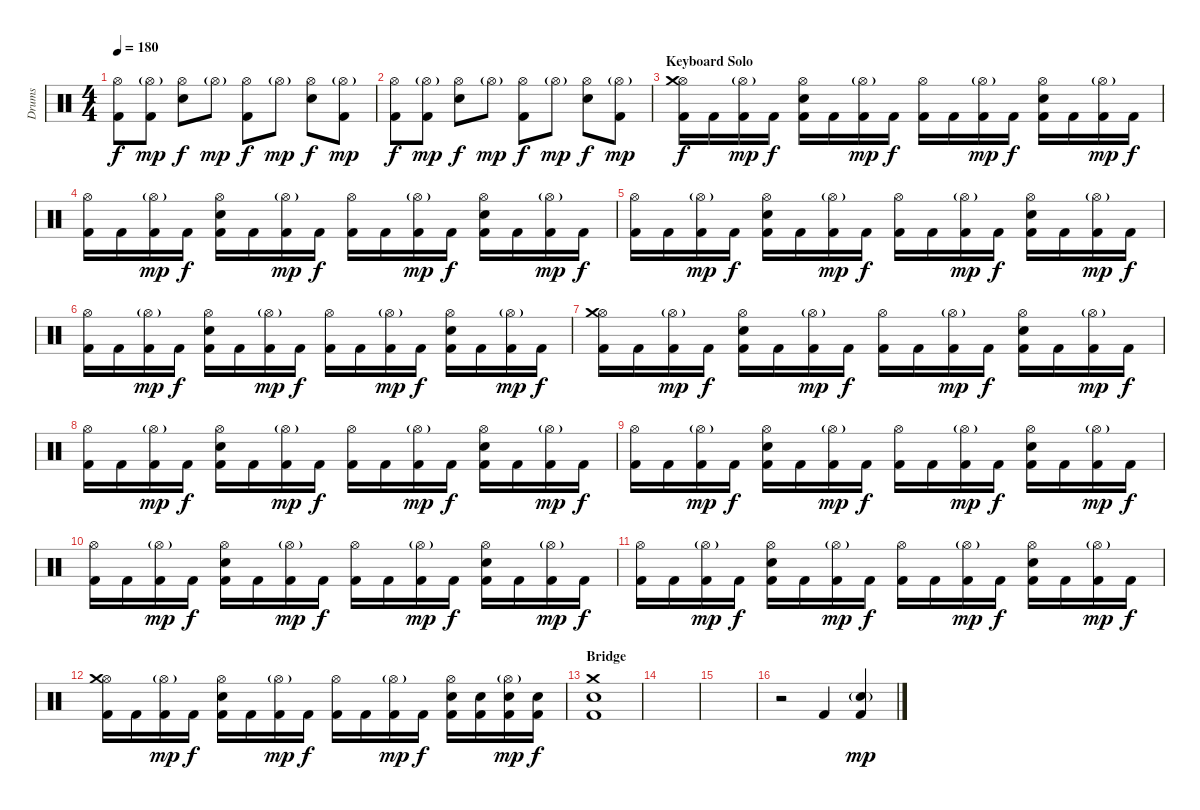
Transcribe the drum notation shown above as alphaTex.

\track ("Drums" "Drums") {instrument percussion}
\staff {score}
\articulation defaults
\ts (4 4)
\tempo 180
\clef neutral
\ks c
("Hi-Hat (open)" "Kick (hit) 2").8{dy f} ("Hi-Hat (open)"{g} "Kick (hit) 2").8{dy mp} ("Hi-Hat (open)" "Electric Snare (hit)").8{dy f} "Hi-Hat (open)"{g}.8{dy mp} ("Hi-Hat (open)" "Kick (hit) 2").8{dy f} "Hi-Hat (open)"{g}.8{dy mp} ("Hi-Hat (open)" "Electric Snare (hit)").8{dy f} ("Hi-Hat (open)"{g} "Kick (hit) 2").8{dy mp} |
("Hi-Hat (open)" "Kick (hit) 2").8{dy f} ("Hi-Hat (open)"{g} "Kick (hit) 2").8{dy mp} ("Hi-Hat (open)" "Electric Snare (hit)").8{dy f} "Hi-Hat (open)"{g}.8{dy mp} ("Hi-Hat (open)" "Kick (hit) 2").8{dy f} "Hi-Hat (open)"{g}.8{dy mp} ("Hi-Hat (open)" "Electric Snare (hit)").8{dy f} ("Hi-Hat (open)"{g} "Kick (hit) 2").8{dy mp} |
\section ("" "Keyboard Solo")
("Hi-Hat (open)" "Crash medium (hit)" "Kick (hit) 2").16{dy f} "Kick (hit) 2".16 ("Hi-Hat (open)"{g} "Kick (hit) 2").16{dy mp} "Kick (hit) 2".16{dy f} ("Hi-Hat (open)" "Electric Snare (hit)" "Kick (hit) 2").16 "Kick (hit) 2".16 ("Hi-Hat (open)"{g} "Kick (hit) 2").16{dy mp} "Kick (hit) 2".16{dy f} ("Hi-Hat (open)" "Kick (hit) 2").16 "Kick (hit) 2".16 ("Hi-Hat (open)"{g} "Kick (hit) 2").16{dy mp} "Kick (hit) 2".16{dy f} ("Hi-Hat (open)" "Electric Snare (hit)" "Kick (hit) 2").16 "Kick (hit) 2".16 ("Hi-Hat (open)"{g} "Kick (hit) 2").16{dy mp} "Kick (hit) 2".16{dy f} |
("Hi-Hat (open)" "Kick (hit) 2").16 "Kick (hit) 2".16 ("Hi-Hat (open)"{g} "Kick (hit) 2").16{dy mp} "Kick (hit) 2".16{dy f} ("Hi-Hat (open)" "Electric Snare (hit)" "Kick (hit) 2").16 "Kick (hit) 2".16 ("Hi-Hat (open)"{g} "Kick (hit) 2").16{dy mp} "Kick (hit) 2".16{dy f} ("Hi-Hat (open)" "Kick (hit) 2").16 "Kick (hit) 2".16 ("Hi-Hat (open)"{g} "Kick (hit) 2").16{dy mp} "Kick (hit) 2".16{dy f} ("Hi-Hat (open)" "Electric Snare (hit)" "Kick (hit) 2").16 "Kick (hit) 2".16 ("Hi-Hat (open)"{g} "Kick (hit) 2").16{dy mp} "Kick (hit) 2".16{dy f} |
("Hi-Hat (open)" "Kick (hit) 2").16 "Kick (hit) 2".16 ("Hi-Hat (open)"{g} "Kick (hit) 2").16{dy mp} "Kick (hit) 2".16{dy f} ("Hi-Hat (open)" "Electric Snare (hit)" "Kick (hit) 2").16 "Kick (hit) 2".16 ("Hi-Hat (open)"{g} "Kick (hit) 2").16{dy mp} "Kick (hit) 2".16{dy f} ("Hi-Hat (open)" "Kick (hit) 2").16 "Kick (hit) 2".16 ("Hi-Hat (open)"{g} "Kick (hit) 2").16{dy mp} "Kick (hit) 2".16{dy f} ("Hi-Hat (open)" "Electric Snare (hit)" "Kick (hit) 2").16 "Kick (hit) 2".16 ("Hi-Hat (open)"{g} "Kick (hit) 2").16{dy mp} "Kick (hit) 2".16{dy f} |
("Hi-Hat (open)" "Kick (hit) 2").16 "Kick (hit) 2".16 ("Hi-Hat (open)"{g} "Kick (hit) 2").16{dy mp} "Kick (hit) 2".16{dy f} ("Hi-Hat (open)" "Electric Snare (hit)" "Kick (hit) 2").16 "Kick (hit) 2".16 ("Hi-Hat (open)"{g} "Kick (hit) 2").16{dy mp} "Kick (hit) 2".16{dy f} ("Hi-Hat (open)" "Kick (hit) 2").16 "Kick (hit) 2".16 ("Hi-Hat (open)"{g} "Kick (hit) 2").16{dy mp} "Kick (hit) 2".16{dy f} ("Hi-Hat (open)" "Electric Snare (hit)" "Kick (hit) 2").16 "Kick (hit) 2".16 ("Hi-Hat (open)"{g} "Kick (hit) 2").16{dy mp} "Kick (hit) 2".16{dy f} |
("Hi-Hat (open)" "Crash medium (hit)" "Kick (hit) 2").16 "Kick (hit) 2".16 ("Hi-Hat (open)"{g} "Kick (hit) 2").16{dy mp} "Kick (hit) 2".16{dy f} ("Hi-Hat (open)" "Electric Snare (hit)" "Kick (hit) 2").16 "Kick (hit) 2".16 ("Hi-Hat (open)"{g} "Kick (hit) 2").16{dy mp} "Kick (hit) 2".16{dy f} ("Hi-Hat (open)" "Kick (hit) 2").16 "Kick (hit) 2".16 ("Hi-Hat (open)"{g} "Kick (hit) 2").16{dy mp} "Kick (hit) 2".16{dy f} ("Hi-Hat (open)" "Electric Snare (hit)" "Kick (hit) 2").16 "Kick (hit) 2".16 ("Hi-Hat (open)"{g} "Kick (hit) 2").16{dy mp} "Kick (hit) 2".16{dy f} |
("Hi-Hat (open)" "Kick (hit) 2").16 "Kick (hit) 2".16 ("Hi-Hat (open)"{g} "Kick (hit) 2").16{dy mp} "Kick (hit) 2".16{dy f} ("Hi-Hat (open)" "Electric Snare (hit)" "Kick (hit) 2").16 "Kick (hit) 2".16 ("Hi-Hat (open)"{g} "Kick (hit) 2").16{dy mp} "Kick (hit) 2".16{dy f} ("Hi-Hat (open)" "Kick (hit) 2").16 "Kick (hit) 2".16 ("Hi-Hat (open)"{g} "Kick (hit) 2").16{dy mp} "Kick (hit) 2".16{dy f} ("Hi-Hat (open)" "Electric Snare (hit)" "Kick (hit) 2").16 "Kick (hit) 2".16 ("Hi-Hat (open)"{g} "Kick (hit) 2").16{dy mp} "Kick (hit) 2".16{dy f} |
("Hi-Hat (open)" "Kick (hit) 2").16 "Kick (hit) 2".16 ("Hi-Hat (open)"{g} "Kick (hit) 2").16{dy mp} "Kick (hit) 2".16{dy f} ("Hi-Hat (open)" "Electric Snare (hit)" "Kick (hit) 2").16 "Kick (hit) 2".16 ("Hi-Hat (open)"{g} "Kick (hit) 2").16{dy mp} "Kick (hit) 2".16{dy f} ("Hi-Hat (open)" "Kick (hit) 2").16 "Kick (hit) 2".16 ("Hi-Hat (open)"{g} "Kick (hit) 2").16{dy mp} "Kick (hit) 2".16{dy f} ("Hi-Hat (open)" "Electric Snare (hit)" "Kick (hit) 2").16 "Kick (hit) 2".16 ("Hi-Hat (open)"{g} "Kick (hit) 2").16{dy mp} "Kick (hit) 2".16{dy f} |
("Hi-Hat (open)" "Kick (hit) 2").16 "Kick (hit) 2".16 ("Hi-Hat (open)"{g} "Kick (hit) 2").16{dy mp} "Kick (hit) 2".16{dy f} ("Hi-Hat (open)" "Electric Snare (hit)" "Kick (hit) 2").16 "Kick (hit) 2".16 ("Hi-Hat (open)"{g} "Kick (hit) 2").16{dy mp} "Kick (hit) 2".16{dy f} ("Hi-Hat (open)" "Kick (hit) 2").16 "Kick (hit) 2".16 ("Hi-Hat (open)"{g} "Kick (hit) 2").16{dy mp} "Kick (hit) 2".16{dy f} ("Hi-Hat (open)" "Electric Snare (hit)" "Kick (hit) 2").16 "Kick (hit) 2".16 ("Hi-Hat (open)"{g} "Kick (hit) 2").16{dy mp} "Kick (hit) 2".16{dy f} |
("Hi-Hat (open)" "Kick (hit) 2").16 "Kick (hit) 2".16 ("Hi-Hat (open)"{g} "Kick (hit) 2").16{dy mp} "Kick (hit) 2".16{dy f} ("Hi-Hat (open)" "Electric Snare (hit)" "Kick (hit) 2").16 "Kick (hit) 2".16 ("Hi-Hat (open)"{g} "Kick (hit) 2").16{dy mp} "Kick (hit) 2".16{dy f} ("Hi-Hat (open)" "Kick (hit) 2").16 "Kick (hit) 2".16 ("Hi-Hat (open)"{g} "Kick (hit) 2").16{dy mp} "Kick (hit) 2".16{dy f} ("Hi-Hat (open)" "Electric Snare (hit)" "Kick (hit) 2").16 "Kick (hit) 2".16 ("Hi-Hat (open)"{g} "Kick (hit) 2").16{dy mp} "Kick (hit) 2".16{dy f} |
("Hi-Hat (open)" "Crash medium (hit)" "Kick (hit) 2").16 "Kick (hit) 2".16 ("Hi-Hat (open)"{g} "Kick (hit) 2").16{dy mp} "Kick (hit) 2".16{dy f} ("Hi-Hat (open)" "Electric Snare (hit)" "Kick (hit) 2").16 "Kick (hit) 2".16 ("Hi-Hat (open)"{g} "Kick (hit) 2").16{dy mp} "Kick (hit) 2".16{dy f} ("Hi-Hat (open)" "Kick (hit) 2").16 "Kick (hit) 2".16 ("Hi-Hat (open)"{g} "Kick (hit) 2").16{dy mp} "Kick (hit) 2".16{dy f} ("Hi-Hat (open)" "Electric Snare (hit)" "Kick (hit) 2").16 ("Electric Snare (hit)" "Kick (hit) 2").16 ("Hi-Hat (open)"{g} "Electric Snare (hit)" "Kick (hit) 2").16{dy mp} ("Electric Snare (hit)" "Kick (hit) 2").16{dy f} |
\section ("" "Bridge")
("Crash medium (hit)" "Electric Snare (hit)" "Kick (hit) 2").1 |
|
|
r.2 "Kick (hit) 2".4 ("Electric Snare (hit)"{g} "Kick (hit) 2").4{dy mp}
